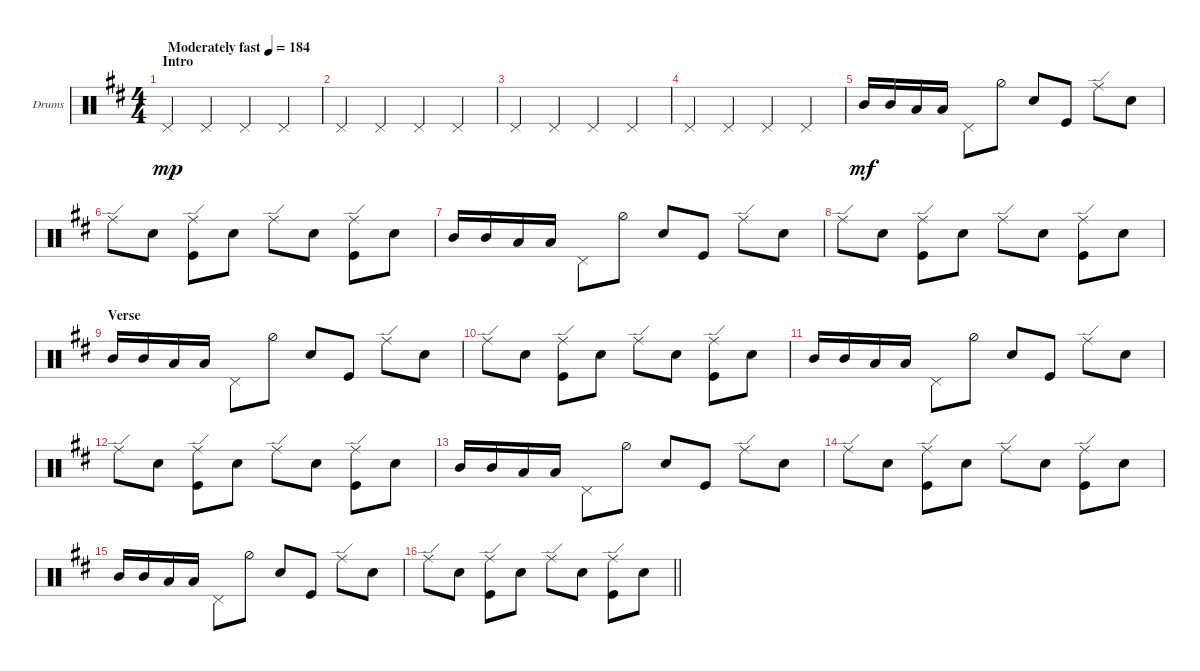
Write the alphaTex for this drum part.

\defaultSystemsLayout 4
\bracketExtendMode groupsimilarinstruments
\firstSystemTrackNameOrientation horizontal
\otherSystemsTrackNameOrientation horizontal
\track ("Drums" "Drums") {instrument percussion}
\staff {score}
\articulation defaults
\ts (4 4)
\section ("" "Intro")
\tempo (184 "Moderately fast")
\clef neutral
\scale
0.514894
\ks d "Pedal Hi-Hat (hit)".4{dy mp} "Pedal Hi-Hat (hit)".4 "Pedal Hi-Hat (hit)".4 "Pedal Hi-Hat (hit)".4
|
\scale
0.242553 "Pedal Hi-Hat (hit)".4 "Pedal Hi-Hat (hit)".4 "Pedal Hi-Hat (hit)".4 "Pedal Hi-Hat (hit)".4 |
\scale
0.242553 "Pedal Hi-Hat (hit)".4 "Pedal Hi-Hat (hit)".4 "Pedal Hi-Hat (hit)".4 "Pedal Hi-Hat (hit)".4 |
\scale
0.333333 "Pedal Hi-Hat (hit)".4 "Pedal Hi-Hat (hit)".4 "Pedal Hi-Hat (hit)".4 "Pedal Hi-Hat (hit)".4 |
\scale
0.333333 "Mid Tom (hit)".16{dy mf} "Mid Tom (hit)".16 "Low Tom (hit)".16 "Low Tom (hit)".16 "Pedal Hi-Hat (hit)".8 "Hi-Hat (half)".8 "Snare (hit) 2".8 "Kick (hit)".8 "Ride (edge)".8 "Snare (hit) 2".8 |
\scale
0.333333 "Ride (edge)".8 "Snare (hit) 2".8 ("Kick (hit)" "Ride (edge)").8 "Snare (hit) 2".8 "Ride (edge)".8 "Snare (hit) 2".8 ("Kick (hit)" "Ride (edge)").8 "Snare (hit) 2".8 |
\scale
0.333333 "Mid Tom (hit)".16 "Mid Tom (hit)".16 "Low Tom (hit)".16 "Low Tom (hit)".16 "Pedal Hi-Hat (hit)".8 "Hi-Hat (half)".8 "Snare (hit) 2".8 "Kick (hit)".8 "Ride (edge)".8 "Snare (hit) 2".8 |
\scale
0.333333 "Ride (edge)".8 "Snare (hit) 2".8 ("Kick (hit)" "Ride (edge)").8 "Snare (hit) 2".8 "Ride (edge)".8 "Snare (hit) 2".8 ("Kick (hit)" "Ride (edge)").8 "Snare (hit) 2".8 |
\section ("" "Verse")
\scale
0.333333 "Mid Tom (hit)".16 "Mid Tom (hit)".16 "Low Tom (hit)".16 "Low Tom (hit)".16 "Pedal Hi-Hat (hit)".8 "Hi-Hat (half)".8 "Snare (hit) 2".8 "Kick (hit)".8 "Ride (edge)".8 "Snare (hit) 2".8 |
\scale
0.333333 "Ride (edge)".8 "Snare (hit) 2".8 ("Kick (hit)" "Ride (edge)").8 "Snare (hit) 2".8 "Ride (edge)".8 "Snare (hit) 2".8 ("Kick (hit)" "Ride (edge)").8 "Snare (hit) 2".8 |
\scale
0.333333 "Mid Tom (hit)".16 "Mid Tom (hit)".16 "Low Tom (hit)".16 "Low Tom (hit)".16 "Pedal Hi-Hat (hit)".8 "Hi-Hat (half)".8 "Snare (hit) 2".8 "Kick (hit)".8 "Ride (edge)".8 "Snare (hit) 2".8 |
\scale
0.333333 "Ride (edge)".8 "Snare (hit) 2".8 ("Kick (hit)" "Ride (edge)").8 "Snare (hit) 2".8 "Ride (edge)".8 "Snare (hit) 2".8 ("Kick (hit)" "Ride (edge)").8 "Snare (hit) 2".8 |
\scale
0.333333 "Mid Tom (hit)".16 "Mid Tom (hit)".16 "Low Tom (hit)".16 "Low Tom (hit)".16 "Pedal Hi-Hat (hit)".8 "Hi-Hat (half)".8 "Snare (hit) 2".8 "Kick (hit)".8 "Ride (edge)".8 "Snare (hit) 2".8 |
\scale
0.333333 "Ride (edge)".8 "Snare (hit) 2".8 ("Kick (hit)" "Ride (edge)").8 "Snare (hit) 2".8 "Ride (edge)".8 "Snare (hit) 2".8 ("Kick (hit)" "Ride (edge)").8 "Snare (hit) 2".8 |
\scale
0.333333 "Mid Tom (hit)".16 "Mid Tom (hit)".16 "Low Tom (hit)".16 "Low Tom (hit)".16 "Pedal Hi-Hat (hit)".8 "Hi-Hat (half)".8 "Snare (hit) 2".8 "Kick (hit)".8 "Ride (edge)".8 "Snare (hit) 2".8 |
\barLineRight lightlight "Ride (edge)".8 "Snare (hit) 2".8
("Kick (hit)" "Ride (edge)").8 "Snare (hit) 2".8 "Ride (edge)".8 "Snare (hit) 2".8 ("Kick (hit)" "Ride (edge)").8 "Snare (hit) 2".8
